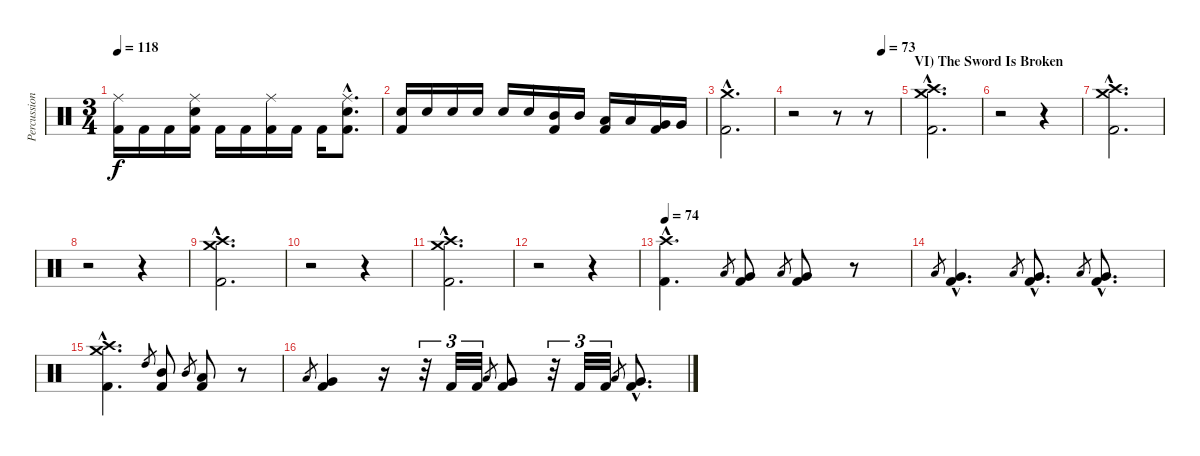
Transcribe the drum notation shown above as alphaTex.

\track ("Percussion" "Percussion") {instrument percussion}
\staff {score}
\articulation defaults
\ts (3 4)
\tempo 118
\clef neutral
\ks c
("Ride (middle)" "Kick (hit) 2").16{dy f} "Kick (hit) 2".16 "Kick (hit) 2".16 ("Ride (middle)" "Electric Snare (hit)" "Kick (hit) 2").16 "Kick (hit) 2".16 "Kick (hit) 2".16 ("Ride (middle)" "Kick (hit) 2").16 "Kick (hit) 2".16 "Kick (hit) 2".16 ("Ride (middle)"{hac} "Electric Snare (hit)"{hac} "Kick (hit) 2"{hac}).8{d} |
("Electric Snare (hit)" "Kick (hit) 2").16 "Electric Snare (hit)".16 "Electric Snare (hit)".16 "Electric Snare (hit)".16 "Electric Snare (hit)".16 "Electric Snare (hit)".16 ("Mid Tom (hit)" "Kick (hit) 2").16 "Mid Tom (hit)".16 ("Low Tom (hit)" "Kick (hit) 2").16 "Low Tom (hit)".16 ("Very Low Tom (hit)" "Kick (hit) 2").16 "Very Low Tom (hit)".16 |
("Crash medium (hit)"{hac} "Kick (hit) 2"{hac}).2{d} |
\tempo (73 0.8333333333333334)
r.2 r.8 r.8 |
\section ("" "VI) The Sword Is Broken")
("Crash high (hit)"{hac} "Crash medium (hit)"{hac} "Kick (hit) 2"{hac}).2{d} |
r.2 r.4 |
("Crash high (hit)"{hac} "Crash medium (hit)"{hac} "Kick (hit) 2"{hac}).2{d} |
r.2 r.4 |
("Crash high (hit)"{hac} "Crash medium (hit)"{hac} "Kick (hit) 2"{hac}).2{d} |
r.2 r.4 |
("Crash high (hit)"{hac} "Crash medium (hit)"{hac} "Kick (hit) 2"{hac}).2{d} |
r.2 r.4 |
\tempo 74
("Crash high (hit)"{hac} "Kick (hit) 2"{hac}).4{d} "Low Tom (hit)".8{gr} ("Very Low Tom (hit)" "Kick (hit) 2").8 "Low Tom (hit)".8{gr} ("Very Low Tom (hit)" "Kick (hit) 2").8 r.8 |
"Low Tom (hit)".8{gr} ("Very Low Tom (hit)"{hac} "Kick (hit) 2"{hac}).4{d} "Low Tom (hit)".8{gr} ("Very Low Tom (hit)"{hac} "Kick (hit) 2"{hac}).8{d} "Low Tom (hit)".8{gr} ("Very Low Tom (hit)"{hac} "Kick (hit) 2"{hac}).8{d} |
("Crash high (hit)"{hac} "Crash medium (hit)"{hac} "Kick (hit) 2"{hac}).4{d} "High Tom (hit)".8{gr} ("Mid Tom (hit)" "Kick (hit) 2").8 "Mid Tom (hit)".8{gr} ("Low Tom (hit)" "Kick (hit) 2").8 r.8 |
"Low Tom (hit)".8{gr} ("Very Low Tom (hit)" "Kick (hit) 2").4 r.16 r.32{tu (3 2)} "Kick (hit) 2".32{tu (3 2)} "Kick (hit) 2".32{tu (3 2)} "Low Tom (hit)".8{gr} ("Very Low Tom (hit)" "Kick (hit) 2").8 r.32{tu (3 2)} "Kick (hit) 2".32{tu (3 2)} "Kick (hit) 2".32{tu (3 2)} "Low Tom (hit)".8{gr} ("Very Low Tom (hit)"{hac} "Kick (hit) 2"{hac}).8{d}
